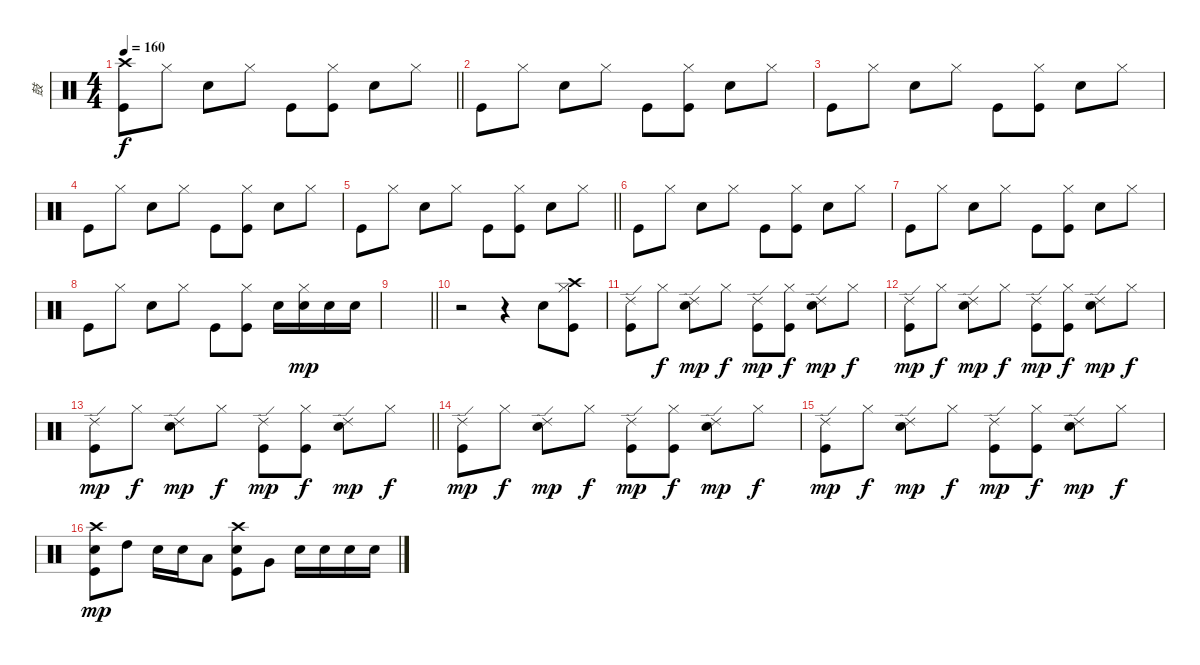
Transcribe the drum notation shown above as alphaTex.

\track ("鼓" "鼓") {instrument percussion}
\staff {score}
\articulation defaults
\ts (4 4)
\tempo 160
\clef neutral
\barLineRight lightlight
\ks c
("Crash high (hit)" "Kick (hit)").8{dy f} "Hi-Hat (closed)".8 "Electric Snare (hit)".8 "Hi-Hat (closed)".8 "Kick (hit)".8 ("Hi-Hat (closed)" "Kick (hit)").8 "Electric Snare (hit)".8 "Hi-Hat (closed)".8 |
"Kick (hit)".8 "Hi-Hat (closed)".8 "Electric Snare (hit)".8 "Hi-Hat (closed)".8 "Kick (hit)".8 ("Hi-Hat (closed)" "Kick (hit)").8 "Electric Snare (hit)".8 "Hi-Hat (closed)".8 |
"Kick (hit)".8 "Hi-Hat (closed)".8 "Electric Snare (hit)".8 "Hi-Hat (closed)".8 "Kick (hit)".8 ("Hi-Hat (closed)" "Kick (hit)").8 "Electric Snare (hit)".8 "Hi-Hat (closed)".8 |
"Kick (hit)".8 "Hi-Hat (closed)".8 "Electric Snare (hit)".8 "Hi-Hat (closed)".8 "Kick (hit)".8 ("Hi-Hat (closed)" "Kick (hit)").8 "Electric Snare (hit)".8 "Hi-Hat (closed)".8 |
\barLineRight lightlight "Kick (hit)".8 "Hi-Hat (closed)".8 "Electric Snare (hit)".8 "Hi-Hat (closed)".8 "Kick (hit)".8
("Hi-Hat (closed)" "Kick (hit)").8 "Electric Snare (hit)".8 "Hi-Hat (closed)".8 |
"Kick (hit)".8 "Hi-Hat (closed)".8 "Electric Snare (hit)".8 "Hi-Hat (closed)".8 "Kick (hit)".8 ("Hi-Hat (closed)" "Kick (hit)").8 "Electric Snare (hit)".8 "Hi-Hat (closed)".8 |
"Kick (hit)".8 "Hi-Hat (closed)".8 "Electric Snare (hit)".8 "Hi-Hat (closed)".8 "Kick (hit)".8 ("Hi-Hat (closed)" "Kick (hit)").8 "Electric Snare (hit)".8 "Hi-Hat (closed)".8 |
"Kick (hit)".8 "Hi-Hat (closed)".8 "Electric Snare (hit)".8 "Hi-Hat (closed)".8 "Kick (hit)".8 ("Hi-Hat (closed)" "Kick (hit)").8 "Electric Snare (hit)".16 ("Hi-Hat (closed)" "Electric Snare (hit)").16{dy mp} "Electric Snare (hit)".16 "Electric Snare (hit)".16 |
\barLineRight lightlight
|
r.2 r.4 "Electric Snare (hit)".8{volume 16} ("Crash high (hit)" "Hi-Hat (closed)" "Kick (hit)").8 |
("Ride (edge) 2" "Kick (hit)").8 "Hi-Hat (closed)".8{dy f} ("Ride (edge) 2" "Electric Snare (hit)").8{dy mp} "Hi-Hat (closed)".8{dy f} ("Ride (edge) 2" "Kick (hit)").8{dy mp} ("Hi-Hat (closed)" "Kick (hit)").8{dy f} ("Ride (edge) 2" "Electric Snare (hit)").8{dy mp} "Hi-Hat (closed)".8{dy f} |
("Ride (edge) 2" "Kick (hit)").8{dy mp} "Hi-Hat (closed)".8{dy f} ("Ride (edge) 2" "Electric Snare (hit)").8{dy mp} "Hi-Hat (closed)".8{dy f} ("Ride (edge) 2" "Kick (hit)").8{dy mp} ("Hi-Hat (closed)" "Kick (hit)").8{dy f} ("Ride (edge) 2" "Electric Snare (hit)").8{dy mp} "Hi-Hat (closed)".8{dy f} |
\barLineRight lightlight
("Ride (edge) 2" "Kick (hit)").8{dy mp} "Hi-Hat (closed)".8{dy f} ("Ride (edge) 2" "Electric Snare (hit)").8{dy mp} "Hi-Hat (closed)".8{dy f} ("Ride (edge) 2" "Kick (hit)").8{dy mp} ("Hi-Hat (closed)" "Kick (hit)").8{dy f} ("Ride (edge) 2" "Electric Snare (hit)").8{dy mp} "Hi-Hat (closed)".8{dy f} |
("Ride (edge) 2" "Kick (hit)").8{dy mp} "Hi-Hat (closed)".8{dy f} ("Ride (edge) 2" "Electric Snare (hit)").8{dy mp} "Hi-Hat (closed)".8{dy f} ("Ride (edge) 2" "Kick (hit)").8{dy mp} ("Hi-Hat (closed)" "Kick (hit)").8{dy f} ("Ride (edge) 2" "Electric Snare (hit)").8{dy mp} "Hi-Hat (closed)".8{dy f} |
("Ride (edge) 2" "Kick (hit)").8{dy mp} "Hi-Hat (closed)".8{dy f} ("Ride (edge) 2" "Electric Snare (hit)").8{dy mp} "Hi-Hat (closed)".8{dy f} ("Ride (edge) 2" "Kick (hit)").8{dy mp} ("Hi-Hat (closed)" "Kick (hit)").8{dy f} ("Ride (edge) 2" "Electric Snare (hit)").8{dy mp} "Hi-Hat (closed)".8{dy f} |
("Crash high (hit)" "Electric Snare (hit)" "Kick (hit)").8{dy mp} "High Tom (hit)".8{volume 16} "Electric Snare (hit)".16 "Electric Snare (hit)".16 "Low Tom (hit)".8{volume 16} ("Crash high (hit)" "Electric Snare (hit)" "Kick (hit)").8 "Very Low Tom (hit)".8{volume 16} "Electric Snare (hit)".16 "Electric Snare (hit)".16 "Electric Snare (hit)".16 "Electric Snare (hit)".16
